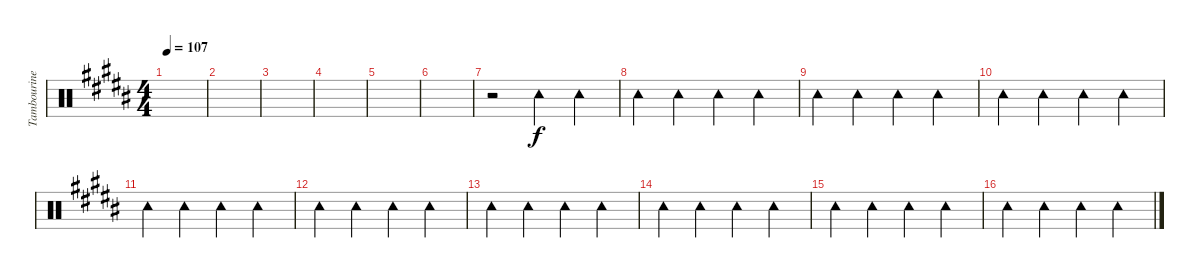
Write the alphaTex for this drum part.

\track ("Tambourine" "Tambourine") {instrument percussion}
\staff {score}
\articulation defaults
\ts (4 4)
\tempo 107
\clef neutral
\ks b
|
|
|
|
|
|
r.2 "Tambourine (hit)".4 "Tambourine (hit)".4 |
"Tambourine (hit)".4 "Tambourine (hit)".4 "Tambourine (hit)".4 "Tambourine (hit)".4 |
"Tambourine (hit)".4 "Tambourine (hit)".4 "Tambourine (hit)".4 "Tambourine (hit)".4 |
"Tambourine (hit)".4 "Tambourine (hit)".4 "Tambourine (hit)".4 "Tambourine (hit)".4 |
"Tambourine (hit)".4 "Tambourine (hit)".4 "Tambourine (hit)".4 "Tambourine (hit)".4 |
"Tambourine (hit)".4 "Tambourine (hit)".4 "Tambourine (hit)".4 "Tambourine (hit)".4 |
"Tambourine (hit)".4 "Tambourine (hit)".4 "Tambourine (hit)".4 "Tambourine (hit)".4 |
"Tambourine (hit)".4 "Tambourine (hit)".4 "Tambourine (hit)".4 "Tambourine (hit)".4 |
"Tambourine (hit)".4 "Tambourine (hit)".4 "Tambourine (hit)".4 "Tambourine (hit)".4 |
"Tambourine (hit)".4 "Tambourine (hit)".4 "Tambourine (hit)".4 "Tambourine (hit)".4
